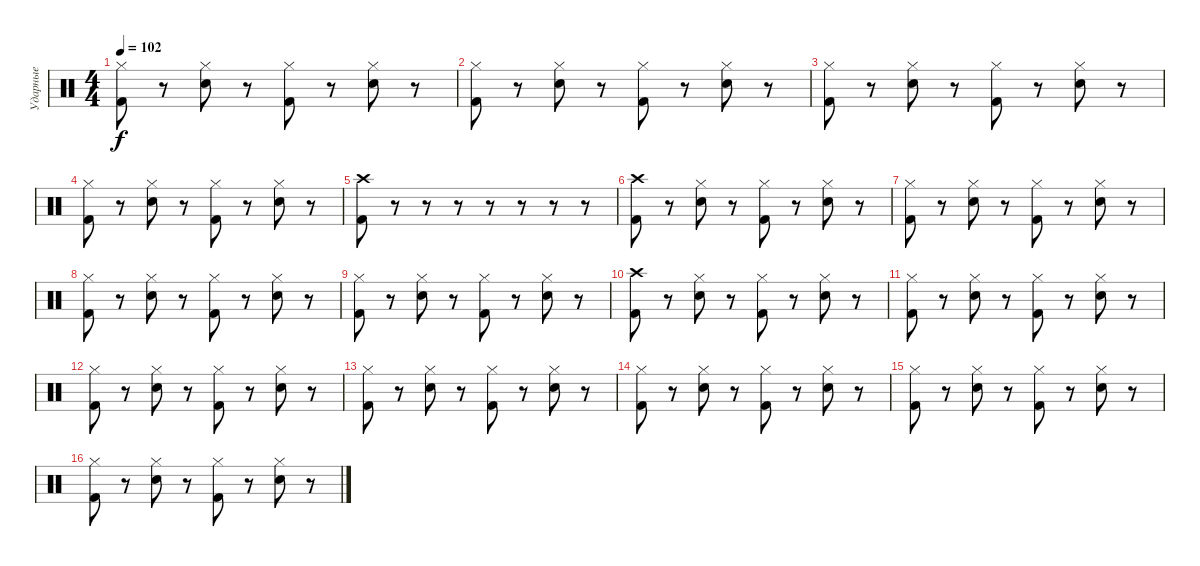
\track ("Ударные" "Ударные") {instrument percussion}
\staff {score}
\articulation defaults
\ts (4 4)
\tempo 102
\clef neutral
\ks c
("Hi-Hat (closed)" "Kick (hit) 2").8{dy f} r.8 ("Hi-Hat (closed)" "Snare (hit) 2").8 r.8 ("Hi-Hat (closed)" "Kick (hit) 2").8 r.8 ("Hi-Hat (closed)" "Snare (hit) 2").8 r.8 |
("Hi-Hat (closed)" "Kick (hit) 2").8 r.8 ("Hi-Hat (closed)" "Snare (hit) 2").8 r.8 ("Hi-Hat (closed)" "Kick (hit) 2").8 r.8 ("Hi-Hat (closed)" "Snare (hit) 2").8 r.8 |
("Hi-Hat (closed)" "Kick (hit) 2").8 r.8 ("Hi-Hat (closed)" "Snare (hit) 2").8 r.8 ("Hi-Hat (closed)" "Kick (hit) 2").8 r.8 ("Hi-Hat (closed)" "Snare (hit) 2").8 r.8 |
("Hi-Hat (closed)" "Kick (hit) 2").8 r.8 ("Hi-Hat (closed)" "Snare (hit) 2").8 r.8 ("Hi-Hat (closed)" "Kick (hit) 2").8 r.8 ("Hi-Hat (closed)" "Snare (hit) 2").8 r.8 |
("Crash high (hit)" "Kick (hit) 2").8 r.8 r.8 r.8 r.8 r.8 r.8 r.8 |
("Crash high (hit)" "Kick (hit) 2").8 r.8 ("Hi-Hat (closed)" "Snare (hit) 2").8 r.8 ("Hi-Hat (closed)" "Kick (hit) 2").8 r.8 ("Hi-Hat (closed)" "Snare (hit) 2").8 r.8 |
("Hi-Hat (closed)" "Kick (hit) 2").8 r.8 ("Hi-Hat (closed)" "Snare (hit) 2").8 r.8 ("Hi-Hat (closed)" "Kick (hit) 2").8 r.8 ("Hi-Hat (closed)" "Snare (hit) 2").8 r.8 |
("Hi-Hat (closed)" "Kick (hit) 2").8 r.8 ("Hi-Hat (closed)" "Snare (hit) 2").8 r.8 ("Hi-Hat (closed)" "Kick (hit) 2").8 r.8 ("Hi-Hat (closed)" "Snare (hit) 2").8 r.8 |
("Hi-Hat (closed)" "Kick (hit) 2").8 r.8 ("Hi-Hat (closed)" "Snare (hit) 2").8 r.8 ("Hi-Hat (closed)" "Kick (hit) 2").8 r.8 ("Hi-Hat (closed)" "Snare (hit) 2").8 r.8 |
("Crash high (hit)" "Kick (hit) 2").8 r.8 ("Hi-Hat (closed)" "Snare (hit) 2").8 r.8 ("Hi-Hat (closed)" "Kick (hit) 2").8 r.8 ("Hi-Hat (closed)" "Snare (hit) 2").8 r.8 |
("Hi-Hat (closed)" "Kick (hit) 2").8 r.8 ("Hi-Hat (closed)" "Snare (hit) 2").8 r.8 ("Hi-Hat (closed)" "Kick (hit) 2").8 r.8 ("Hi-Hat (closed)" "Snare (hit) 2").8 r.8 |
("Hi-Hat (closed)" "Kick (hit) 2").8 r.8 ("Hi-Hat (closed)" "Snare (hit) 2").8 r.8 ("Hi-Hat (closed)" "Kick (hit) 2").8 r.8 ("Hi-Hat (closed)" "Snare (hit) 2").8 r.8 |
("Hi-Hat (closed)" "Kick (hit) 2").8 r.8 ("Hi-Hat (closed)" "Snare (hit) 2").8 r.8 ("Hi-Hat (closed)" "Kick (hit) 2").8 r.8 ("Hi-Hat (closed)" "Snare (hit) 2").8 r.8 |
("Hi-Hat (closed)" "Kick (hit) 2").8 r.8 ("Hi-Hat (closed)" "Snare (hit) 2").8 r.8 ("Hi-Hat (closed)" "Kick (hit) 2").8 r.8 ("Hi-Hat (closed)" "Snare (hit) 2").8 r.8 |
("Hi-Hat (closed)" "Kick (hit) 2").8 r.8 ("Hi-Hat (closed)" "Snare (hit) 2").8 r.8 ("Hi-Hat (closed)" "Kick (hit) 2").8 r.8 ("Hi-Hat (closed)" "Snare (hit) 2").8 r.8 |
("Hi-Hat (closed)" "Kick (hit) 2").8 r.8 ("Hi-Hat (closed)" "Snare (hit) 2").8 r.8 ("Hi-Hat (closed)" "Kick (hit) 2").8 r.8 ("Hi-Hat (closed)" "Snare (hit) 2").8 r.8
